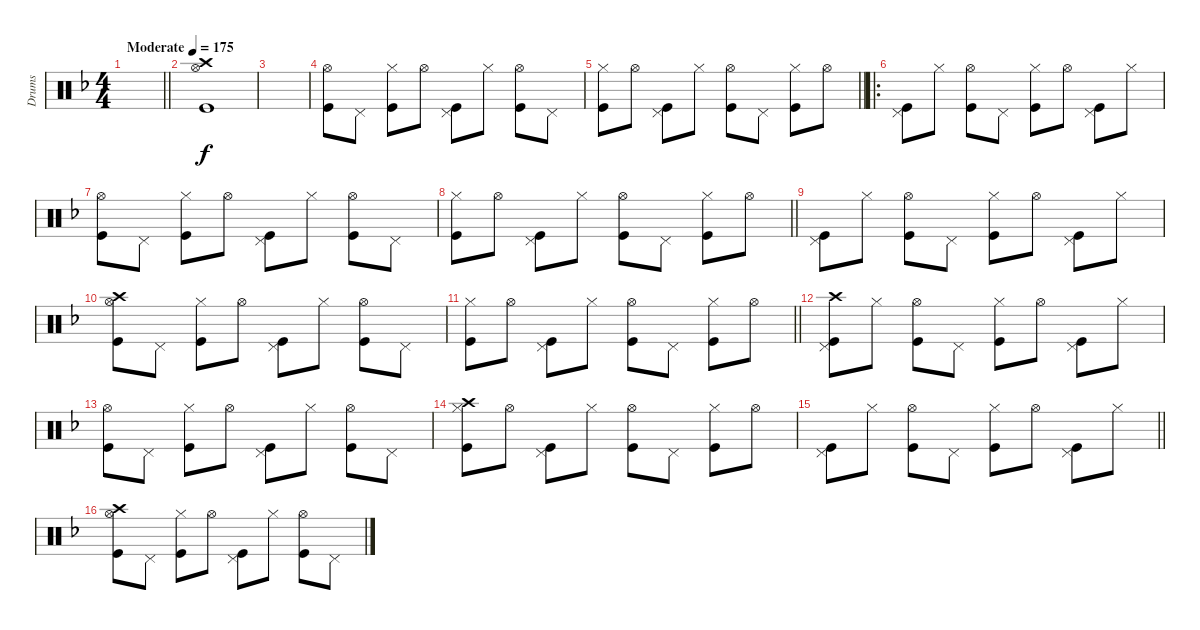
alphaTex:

\track ("Drums" "Drums") {instrument percussion}
\staff
\articulation defaults
\ts (4 4)
\tempo (175 "Moderate")
\clef neutral
\barLineRight lightlight
\ks f
|
("Crash high (hit)" "Hi-Hat (open)" "Kick (hit)").1 |
|
("Hi-Hat (open)" "Kick (hit)").8 "Pedal Hi-Hat (hit)".8 ("Hi-Hat (closed)" "Kick (hit)").8 "Hi-Hat (open)".8 ("Pedal Hi-Hat (hit)" "Kick (hit)").8 "Hi-Hat (closed)".8 ("Hi-Hat (open)" "Kick (hit)").8 "Pedal Hi-Hat (hit)".8 |
\barLineRight lightlight
("Hi-Hat (closed)" "Kick (hit)").8 "Hi-Hat (open)".8 ("Pedal Hi-Hat (hit)" "Kick (hit)").8 "Hi-Hat (closed)".8 ("Hi-Hat (open)" "Kick (hit)").8 "Pedal Hi-Hat (hit)".8 ("Hi-Hat (closed)" "Kick (hit)").8 "Hi-Hat (open)".8 |
\ro
("Pedal Hi-Hat (hit)" "Kick (hit)").8 "Hi-Hat (closed)".8 ("Hi-Hat (open)" "Kick (hit)").8 "Pedal Hi-Hat (hit)".8 ("Hi-Hat (closed)" "Kick (hit)").8 "Hi-Hat (open)".8 ("Pedal Hi-Hat (hit)" "Kick (hit)").8 "Hi-Hat (closed)".8 |
("Hi-Hat (open)" "Kick (hit)").8 "Pedal Hi-Hat (hit)".8 ("Hi-Hat (closed)" "Kick (hit)").8 "Hi-Hat (open)".8 ("Pedal Hi-Hat (hit)" "Kick (hit)").8 "Hi-Hat (closed)".8 ("Hi-Hat (open)" "Kick (hit)").8 "Pedal Hi-Hat (hit)".8 |
\barLineRight lightlight
("Hi-Hat (closed)" "Kick (hit)").8 "Hi-Hat (open)".8 ("Pedal Hi-Hat (hit)" "Kick (hit)").8 "Hi-Hat (closed)".8 ("Hi-Hat (open)" "Kick (hit)").8 "Pedal Hi-Hat (hit)".8 ("Hi-Hat (closed)" "Kick (hit)").8 "Hi-Hat (open)".8 |
("Pedal Hi-Hat (hit)" "Kick (hit)").8 "Hi-Hat (closed)".8 ("Hi-Hat (open)" "Kick (hit)").8 "Pedal Hi-Hat (hit)".8 ("Hi-Hat (closed)" "Kick (hit)").8 "Hi-Hat (open)".8 ("Pedal Hi-Hat (hit)" "Kick (hit)").8 "Hi-Hat (closed)".8 |
("Crash high (hit)" "Hi-Hat (open)" "Kick (hit)").8 "Pedal Hi-Hat (hit)".8 ("Hi-Hat (closed)" "Kick (hit)").8 "Hi-Hat (open)".8 ("Pedal Hi-Hat (hit)" "Kick (hit)").8 "Hi-Hat (closed)".8 ("Hi-Hat (open)" "Kick (hit)").8 "Pedal Hi-Hat (hit)".8 |
\barLineRight lightlight
("Hi-Hat (closed)" "Kick (hit)").8 "Hi-Hat (open)".8 ("Pedal Hi-Hat (hit)" "Kick (hit)").8 "Hi-Hat (closed)".8 ("Hi-Hat (open)" "Kick (hit)").8 "Pedal Hi-Hat (hit)".8 ("Hi-Hat (closed)" "Kick (hit)").8 "Hi-Hat (open)".8 |
("Crash high (hit)" "Pedal Hi-Hat (hit)" "Kick (hit)").8 "Hi-Hat (closed)".8 ("Hi-Hat (open)" "Kick (hit)").8 "Pedal Hi-Hat (hit)".8 ("Hi-Hat (closed)" "Kick (hit)").8 "Hi-Hat (open)".8 ("Pedal Hi-Hat (hit)" "Kick (hit)").8 "Hi-Hat (closed)".8 |
("Hi-Hat (open)" "Kick (hit)").8 "Pedal Hi-Hat (hit)".8 ("Hi-Hat (closed)" "Kick (hit)").8 "Hi-Hat (open)".8 ("Pedal Hi-Hat (hit)" "Kick (hit)").8 "Hi-Hat (closed)".8 ("Hi-Hat (open)" "Kick (hit)").8 "Pedal Hi-Hat (hit)".8 |
("Crash high (hit)" "Hi-Hat (closed)" "Kick (hit)").8 "Hi-Hat (open)".8 ("Pedal Hi-Hat (hit)" "Kick (hit)").8 "Hi-Hat (closed)".8 ("Hi-Hat (open)" "Kick (hit)").8 "Pedal Hi-Hat (hit)".8 ("Hi-Hat (closed)" "Kick (hit)").8 "Hi-Hat (open)".8 |
\barLineRight lightlight
("Pedal Hi-Hat (hit)" "Kick (hit)").8 "Hi-Hat (closed)".8 ("Hi-Hat (open)" "Kick (hit)").8 "Pedal Hi-Hat (hit)".8 ("Hi-Hat (closed)" "Kick (hit)").8 "Hi-Hat (open)".8 ("Pedal Hi-Hat (hit)" "Kick (hit)").8 "Hi-Hat (closed)".8 |
("Crash high (hit)" "Hi-Hat (open)" "Kick (hit)").8 "Pedal Hi-Hat (hit)".8 ("Hi-Hat (closed)" "Kick (hit)").8 "Hi-Hat (open)".8 ("Pedal Hi-Hat (hit)" "Kick (hit)").8 "Hi-Hat (closed)".8 ("Hi-Hat (open)" "Kick (hit)").8 "Pedal Hi-Hat (hit)".8
